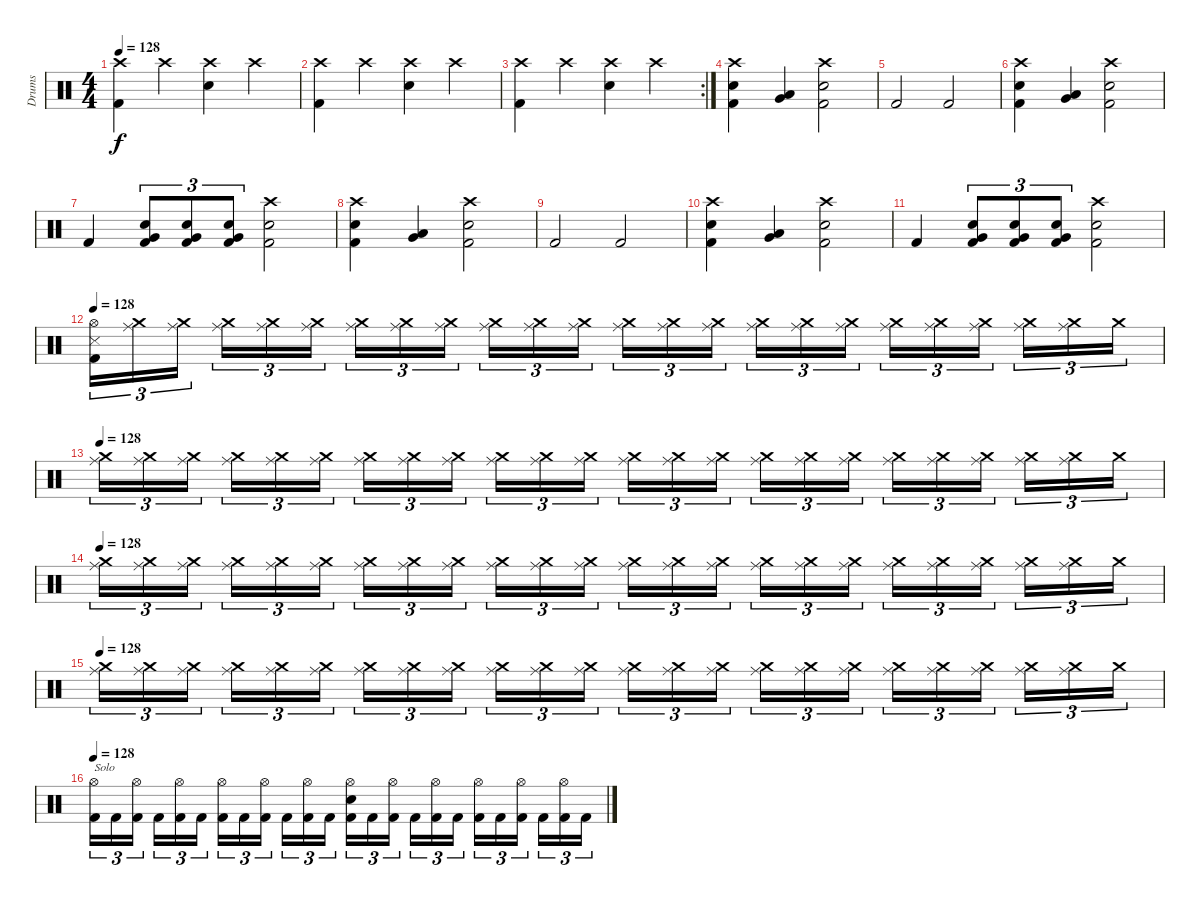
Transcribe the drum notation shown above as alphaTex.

\track ("Drums" "Drums") {instrument percussion}
\staff {score}
\articulation defaults
\ts (4 4)
\tempo 128
\clef neutral
\ks c
("Crash high (hit)" "Kick (hit) 2").4{dy f} "Crash high (hit)".4 ("Crash high (hit)" "Electric Snare (hit)").4 "Crash high (hit)".4 |
("Crash high (hit)" "Kick (hit) 2").4 "Crash high (hit)".4 ("Crash high (hit)" "Electric Snare (hit)").4 "Crash high (hit)".4 |
\rc 2
("Crash high (hit)" "Kick (hit) 2").4 "Crash high (hit)".4 ("Crash high (hit)" "Electric Snare (hit)").4 "Crash high (hit)".4 |
("Crash high (hit)" "Electric Snare (hit)" "Kick (hit) 2").4 ("Very Low Tom (hit)" "Low Floor Tom (hit)").4 ("Crash high (hit)" "Electric Snare (hit)" "Kick (hit) 2").2 |
"Kick (hit) 2".2 "Kick (hit) 2".2 |
("Crash high (hit)" "Electric Snare (hit)" "Kick (hit) 2").4 ("Very Low Tom (hit)" "Low Floor Tom (hit)").4 ("Crash high (hit)" "Electric Snare (hit)" "Kick (hit) 2").2 |
"Kick (hit) 2".4 ("Very Low Tom (hit)" "Electric Snare (hit)" "Kick (hit) 2").8{tu (3 2)} ("Very Low Tom (hit)" "Electric Snare (hit)" "Kick (hit) 2").8{tu (3 2)} ("Very Low Tom (hit)" "Electric Snare (hit)" "Kick (hit) 2").8{tu (3 2)} ("Crash high (hit)" "Electric Snare (hit)" "Kick (hit) 2").2 |
("Crash high (hit)" "Electric Snare (hit)" "Kick (hit) 2").4 ("Very Low Tom (hit)" "Low Floor Tom (hit)").4 ("Crash high (hit)" "Electric Snare (hit)" "Kick (hit) 2").2 |
"Kick (hit) 2".2 "Kick (hit) 2".2 |
("Crash high (hit)" "Electric Snare (hit)" "Kick (hit) 2").4 ("Very Low Tom (hit)" "Low Floor Tom (hit)").4 ("Crash high (hit)" "Electric Snare (hit)" "Kick (hit) 2").2 |
"Kick (hit) 2".4 ("Very Low Tom (hit)" "Electric Snare (hit)" "Kick (hit) 2").8{tu (3 2)} ("Very Low Tom (hit)" "Electric Snare (hit)" "Kick (hit) 2").8{tu (3 2)} ("Very Low Tom (hit)" "Electric Snare (hit)" "Kick (hit) 2").8{tu (3 2)} ("Crash high (hit)" "Electric Snare (hit)" "Kick (hit) 2").2 |
\tempo 128
("Hi-Hat (open)" "Snare (side stick) 3" "Kick (hit) 2").16{tu (3 2) volume 16} ("Ride (middle)" "Crash medium (hit)").16{tu (3 2) volume 1} ("Ride (middle)" "Crash medium (hit)").16{tu (3 2)} ("Ride (middle)" "Crash medium (hit)").16{tu (3 2)} ("Ride (middle)" "Crash medium (hit)").16{tu (3 2)} ("Ride (middle)" "Crash medium (hit)").16{tu (3 2)} ("Ride (middle)" "Crash medium (hit)").16{tu (3 2) volume 2} ("Ride (middle)" "Crash medium (hit)").16{tu (3 2)} ("Ride (middle)" "Crash medium (hit)").16{tu (3 2)} ("Ride (middle)" "Crash medium (hit)").16{tu (3 2)} ("Ride (middle)" "Crash medium (hit)").16{tu (3 2)} ("Ride (middle)" "Crash medium (hit)").16{tu (3 2)} ("Ride (middle)" "Crash medium (hit)").16{tu (3 2) volume 3} ("Ride (middle)" "Crash medium (hit)").16{tu (3 2)} ("Ride (middle)" "Crash medium (hit)").16{tu (3 2)} ("Ride (middle)" "Crash medium (hit)").16{tu (3 2)} ("Ride (middle)" "Crash medium (hit)").16{tu (3 2)} ("Ride (middle)" "Crash medium (hit)").16{tu (3 2)} ("Ride (middle)" "Crash medium (hit)").16{tu (3 2) volume 4} ("Ride (middle)" "Crash medium (hit)").16{tu (3 2)} ("Ride (middle)" "Crash medium (hit)").16{tu (3 2)} ("Ride (middle)" "Crash medium (hit)").16{tu (3 2)} ("Ride (middle)" "Crash medium (hit)").16{tu (3 2)} "Crash medium (hit)".16{tu (3 2)} |
\tempo 128
("Ride (middle)" "Crash medium (hit)").16{tu (3 2) volume 5} ("Ride (middle)" "Crash medium (hit)").16{tu (3 2)} ("Ride (middle)" "Crash medium (hit)").16{tu (3 2)} ("Ride (middle)" "Crash medium (hit)").16{tu (3 2)} ("Ride (middle)" "Crash medium (hit)").16{tu (3 2)} ("Ride (middle)" "Crash medium (hit)").16{tu (3 2)} ("Ride (middle)" "Crash medium (hit)").16{tu (3 2) volume 6} ("Ride (middle)" "Crash medium (hit)").16{tu (3 2)} ("Ride (middle)" "Crash medium (hit)").16{tu (3 2)} ("Ride (middle)" "Crash medium (hit)").16{tu (3 2)} ("Ride (middle)" "Crash medium (hit)").16{tu (3 2)} ("Ride (middle)" "Crash medium (hit)").16{tu (3 2)} ("Ride (middle)" "Crash medium (hit)").16{tu (3 2) volume 7} ("Ride (middle)" "Crash medium (hit)").16{tu (3 2)} ("Ride (middle)" "Crash medium (hit)").16{tu (3 2)} ("Ride (middle)" "Crash medium (hit)").16{tu (3 2)} ("Ride (middle)" "Crash medium (hit)").16{tu (3 2)} ("Ride (middle)" "Crash medium (hit)").16{tu (3 2)} ("Ride (middle)" "Crash medium (hit)").16{tu (3 2) volume 8} ("Ride (middle)" "Crash medium (hit)").16{tu (3 2)} ("Ride (middle)" "Crash medium (hit)").16{tu (3 2)} ("Ride (middle)" "Crash medium (hit)").16{tu (3 2)} ("Ride (middle)" "Crash medium (hit)").16{tu (3 2)} "Crash medium (hit)".16{tu (3 2)} |
\tempo 128
("Ride (middle)" "Crash medium (hit)").16{tu (3 2) volume 9} ("Ride (middle)" "Crash medium (hit)").16{tu (3 2)} ("Ride (middle)" "Crash medium (hit)").16{tu (3 2)} ("Ride (middle)" "Crash medium (hit)").16{tu (3 2)} ("Ride (middle)" "Crash medium (hit)").16{tu (3 2)} ("Ride (middle)" "Crash medium (hit)").16{tu (3 2)} ("Ride (middle)" "Crash medium (hit)").16{tu (3 2) volume 10} ("Ride (middle)" "Crash medium (hit)").16{tu (3 2)} ("Ride (middle)" "Crash medium (hit)").16{tu (3 2)} ("Ride (middle)" "Crash medium (hit)").16{tu (3 2)} ("Ride (middle)" "Crash medium (hit)").16{tu (3 2)} ("Ride (middle)" "Crash medium (hit)").16{tu (3 2)} ("Ride (middle)" "Crash medium (hit)").16{tu (3 2) volume 11} ("Ride (middle)" "Crash medium (hit)").16{tu (3 2)} ("Ride (middle)" "Crash medium (hit)").16{tu (3 2)} ("Ride (middle)" "Crash medium (hit)").16{tu (3 2)} ("Ride (middle)" "Crash medium (hit)").16{tu (3 2)} ("Ride (middle)" "Crash medium (hit)").16{tu (3 2)} ("Ride (middle)" "Crash medium (hit)").16{tu (3 2) volume 12} ("Ride (middle)" "Crash medium (hit)").16{tu (3 2)} ("Ride (middle)" "Crash medium (hit)").16{tu (3 2)} ("Ride (middle)" "Crash medium (hit)").16{tu (3 2)} ("Ride (middle)" "Crash medium (hit)").16{tu (3 2)} "Crash medium (hit)".16{tu (3 2)} |
\tempo 128
("Ride (middle)" "Crash medium (hit)").16{tu (3 2) volume 13} ("Ride (middle)" "Crash medium (hit)").16{tu (3 2)} ("Ride (middle)" "Crash medium (hit)").16{tu (3 2)} ("Ride (middle)" "Crash medium (hit)").16{tu (3 2)} ("Ride (middle)" "Crash medium (hit)").16{tu (3 2)} ("Ride (middle)" "Crash medium (hit)").16{tu (3 2)} ("Ride (middle)" "Crash medium (hit)").16{tu (3 2) volume 14} ("Ride (middle)" "Crash medium (hit)").16{tu (3 2)} ("Ride (middle)" "Crash medium (hit)").16{tu (3 2)} ("Ride (middle)" "Crash medium (hit)").16{tu (3 2)} ("Ride (middle)" "Crash medium (hit)").16{tu (3 2)} ("Ride (middle)" "Crash medium (hit)").16{tu (3 2)} ("Ride (middle)" "Crash medium (hit)").16{tu (3 2) volume 15} ("Ride (middle)" "Crash medium (hit)").16{tu (3 2)} ("Ride (middle)" "Crash medium (hit)").16{tu (3 2)} ("Ride (middle)" "Crash medium (hit)").16{tu (3 2)} ("Ride (middle)" "Crash medium (hit)").16{tu (3 2)} ("Ride (middle)" "Crash medium (hit)").16{tu (3 2)} ("Ride (middle)" "Crash medium (hit)").16{tu (3 2) volume 16} ("Ride (middle)" "Crash medium (hit)").16{tu (3 2)} ("Ride (middle)" "Crash medium (hit)").16{tu (3 2)} ("Ride (middle)" "Crash medium (hit)").16{tu (3 2)} ("Ride (middle)" "Crash medium (hit)").16{tu (3 2)} "Crash medium (hit)".16{tu (3 2)} |
\tempo 128
("Hi-Hat (open)" "Kick (hit) 2").16{tu (3 2) txt "Solo"} "Kick (hit) 2".16{tu (3 2)} ("Hi-Hat (open)" "Kick (hit) 2").16{tu (3 2)} "Kick (hit) 2".16{tu (3 2)} ("Hi-Hat (open)" "Kick (hit) 2").16{tu (3 2)} "Kick (hit) 2".16{tu (3 2)} ("Hi-Hat (open)" "Kick (hit) 2").16{tu (3 2)} "Kick (hit) 2".16{tu (3 2)} ("Hi-Hat (open)" "Kick (hit) 2").16{tu (3 2)} "Kick (hit) 2".16{tu (3 2)} ("Hi-Hat (open)" "Kick (hit) 2").16{tu (3 2)} "Kick (hit) 2".16{tu (3 2)} ("Hi-Hat (open)" "Electric Snare (hit)" "Kick (hit) 2").16{tu (3 2)} "Kick (hit) 2".16{tu (3 2)} ("Hi-Hat (open)" "Kick (hit) 2").16{tu (3 2)} "Kick (hit) 2".16{tu (3 2)} ("Hi-Hat (open)" "Kick (hit) 2").16{tu (3 2)} "Kick (hit) 2".16{tu (3 2)} ("Hi-Hat (open)" "Kick (hit) 2").16{tu (3 2)} "Kick (hit) 2".16{tu (3 2)} ("Hi-Hat (open)" "Kick (hit) 2").16{tu (3 2)} "Kick (hit) 2".16{tu (3 2)} ("Hi-Hat (open)" "Kick (hit) 2").16{tu (3 2)} "Kick (hit) 2".16{tu (3 2)}
